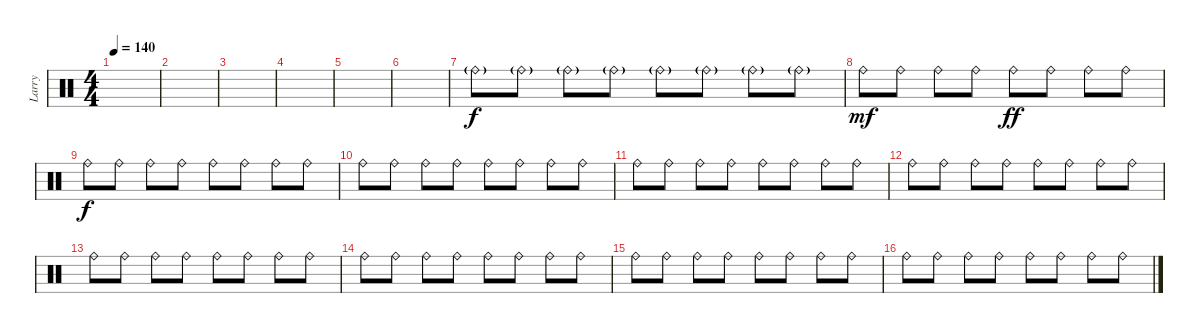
\track ("Larry" "Larry") {instrument percussion}
\staff {score}
\articulation defaults
\ts (4 4)
\tempo 140
\clef neutral
\ks c
|
|
|
|
|
|
"Ride (bell)"{g}.8 "Ride (bell)"{g}.8 "Ride (bell)"{g}.8 "Ride (bell)"{g}.8 "Ride (bell)"{g}.8 "Ride (bell)"{g}.8 "Ride (bell)"{g}.8 "Ride (bell)"{g}.8 |
"Ride (bell)".8{dy mf} "Ride (bell)".8 "Ride (bell)".8 "Ride (bell)".8 "Ride (bell)".8{dy ff} "Ride (bell)".8 "Ride (bell)".8 "Ride (bell)".8 |
"Ride (bell)".8{dy f} "Ride (bell)".8 "Ride (bell)".8 "Ride (bell)".8 "Ride (bell)".8 "Ride (bell)".8 "Ride (bell)".8 "Ride (bell)".8 |
"Ride (bell)".8 "Ride (bell)".8 "Ride (bell)".8 "Ride (bell)".8 "Ride (bell)".8 "Ride (bell)".8 "Ride (bell)".8 "Ride (bell)".8 |
"Ride (bell)".8 "Ride (bell)".8 "Ride (bell)".8 "Ride (bell)".8 "Ride (bell)".8 "Ride (bell)".8 "Ride (bell)".8 "Ride (bell)".8 |
"Ride (bell)".8 "Ride (bell)".8 "Ride (bell)".8 "Ride (bell)".8 "Ride (bell)".8 "Ride (bell)".8 "Ride (bell)".8 "Ride (bell)".8 |
"Ride (bell)".8 "Ride (bell)".8 "Ride (bell)".8 "Ride (bell)".8 "Ride (bell)".8 "Ride (bell)".8 "Ride (bell)".8 "Ride (bell)".8 |
"Ride (bell)".8 "Ride (bell)".8 "Ride (bell)".8 "Ride (bell)".8 "Ride (bell)".8 "Ride (bell)".8 "Ride (bell)".8 "Ride (bell)".8 |
"Ride (bell)".8 "Ride (bell)".8 "Ride (bell)".8 "Ride (bell)".8 "Ride (bell)".8 "Ride (bell)".8 "Ride (bell)".8 "Ride (bell)".8 |
"Ride (bell)".8 "Ride (bell)".8 "Ride (bell)".8 "Ride (bell)".8 "Ride (bell)".8 "Ride (bell)".8 "Ride (bell)".8 "Ride (bell)".8
